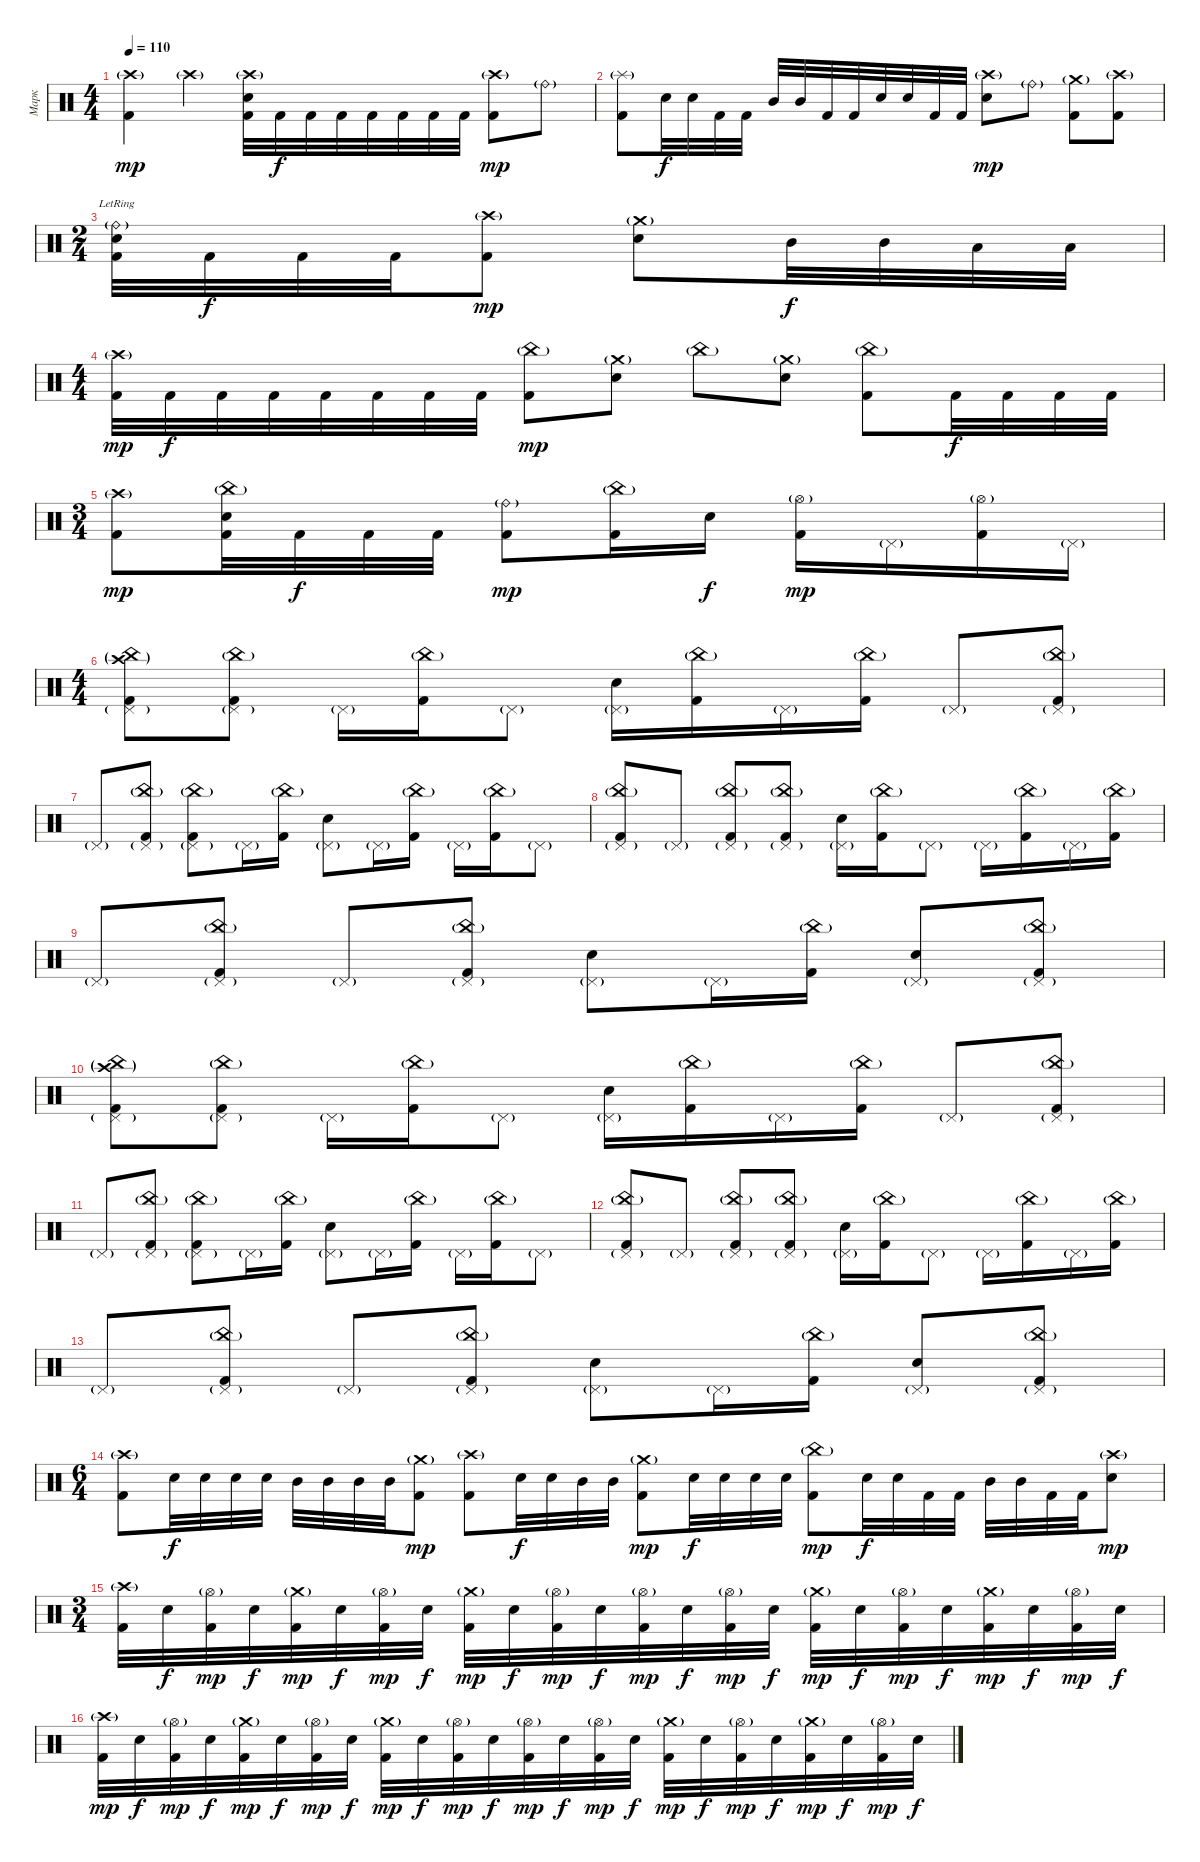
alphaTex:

\track ("Марк " "Марк ") {instrument percussion}
\staff {score}
\articulation defaults
\ts (4 4)
\tempo 110
\clef neutral
\ks c
("Crash high (hit)"{g} "Kick (hit) 2").4{dy mp} "Crash high (hit)"{g}.4 ("Crash high (hit)"{g} "Electric Snare (hit)" "Kick (hit) 2").32 "Kick (hit) 2".32{dy f} "Kick (hit) 2".32 "Kick (hit) 2".32 "Kick (hit) 2".32 "Kick (hit) 2".32 "Kick (hit) 2".32 "Kick (hit) 2".32 ("Crash high (hit)"{g} "Kick (hit) 2").8{dy mp} "Ride (bell)"{g}.8 |
("Splash (hit)"{g} "Kick (hit) 2").8 "Electric Snare (hit)".32{dy f} "Electric Snare (hit)".32 "Kick (hit) 2".32 "Kick (hit) 2".32 "Mid Tom (hit)".32 "Mid Tom (hit)".32 "Kick (hit) 2".32 "Kick (hit) 2".32 "Electric Snare (hit)".32 "Electric Snare (hit)".32 "Kick (hit) 2".32 "Kick (hit) 2".32 ("Crash high (hit)"{g} "Electric Snare (hit)").8{dy mp} "Ride (bell)"{g}.8 ("Crash medium (hit)"{g} "Kick (hit) 2").8 ("Crash high (hit)"{g} "Kick (hit) 2").8 |
\ts (2 4)
("Ride (bell)"{g lr} "Electric Snare (hit)" "Kick (hit) 2").32 "Kick (hit) 2".32{dy f} "Kick (hit) 2".32 "Kick (hit) 2".32 ("Crash high (hit)"{g} "Kick (hit) 2").8{dy mp} ("Crash medium (hit)"{g} "Electric Snare (hit)").8 "Mid Tom (hit)".32{dy f} "Mid Tom (hit)".32 "Low Tom (hit)".32 "Low Tom (hit)".32 |
\ts (4 4)
("Crash high (hit)"{g} "Kick (hit) 2").32{dy mp} "Kick (hit) 2".32{dy f} "Kick (hit) 2".32 "Kick (hit) 2".32 "Kick (hit) 2".32 "Kick (hit) 2".32 "Kick (hit) 2".32 "Kick (hit) 2".32 ("China (hit)"{g} "Kick (hit) 2").8{dy mp} ("Crash medium (hit)"{g} "Electric Snare (hit)").8 "China (hit)"{g}.8 ("Crash medium (hit)"{g} "Electric Snare (hit)").8 ("China (hit)"{g} "Kick (hit) 2").8 "Kick (hit) 2".32{dy f} "Kick (hit) 2".32 "Kick (hit) 2".32 "Kick (hit) 2".32 |
\ts (3 4)
("Crash high (hit)"{g} "Kick (hit) 2").8{dy mp} ("China (hit)"{g} "Electric Snare (hit)" "Kick (hit) 2").32 "Kick (hit) 2".32{dy f} "Kick (hit) 2".32 "Kick (hit) 2".32 ("Ride (bell)"{g} "Kick (hit) 2").8{dy mp} ("China (hit)"{g} "Kick (hit) 2").16 "Electric Snare (hit)".16{dy f} ("Hi-Hat (open)"{g} "Kick (hit) 2").16{dy mp} "Pedal Hi-Hat (hit)"{g}.16 ("Hi-Hat (open)"{g} "Kick (hit) 2").16 "Pedal Hi-Hat (hit)"{g}.16 |
\ts (4 4)
("China (hit)"{g} "Pedal Hi-Hat (hit)"{g} "Crash high (hit)"{g} "Kick (hit) 2").8 ("China (hit)"{g} "Pedal Hi-Hat (hit)"{g} "Kick (hit) 2").8 "Pedal Hi-Hat (hit)"{g}.16 ("China (hit)"{g} "Kick (hit) 2").16 "Pedal Hi-Hat (hit)"{g}.8 ("Pedal Hi-Hat (hit)"{g} "Electric Snare (hit)").16 ("China (hit)"{g} "Kick (hit) 2").16 "Pedal Hi-Hat (hit)"{g}.16 ("China (hit)"{g} "Kick (hit) 2").16 "Pedal Hi-Hat (hit)"{g}.8 ("China (hit)"{g} "Pedal Hi-Hat (hit)"{g} "Kick (hit) 2").8 |
"Pedal Hi-Hat (hit)"{g}.8 ("China (hit)"{g} "Pedal Hi-Hat (hit)"{g} "Kick (hit) 2").8 ("China (hit)"{g} "Pedal Hi-Hat (hit)"{g} "Kick (hit) 2").8 "Pedal Hi-Hat (hit)"{g}.16 ("China (hit)"{g} "Kick (hit) 2").16 ("Pedal Hi-Hat (hit)"{g} "Electric Snare (hit)").8 "Pedal Hi-Hat (hit)"{g}.16 ("China (hit)"{g} "Kick (hit) 2").16 "Pedal Hi-Hat (hit)"{g}.16 ("China (hit)"{g} "Kick (hit) 2").16 "Pedal Hi-Hat (hit)"{g}.8 |
("China (hit)"{g} "Pedal Hi-Hat (hit)"{g} "Kick (hit) 2").8 "Pedal Hi-Hat (hit)"{g}.8 ("China (hit)"{g} "Pedal Hi-Hat (hit)"{g} "Kick (hit) 2").8 ("China (hit)"{g} "Pedal Hi-Hat (hit)"{g} "Kick (hit) 2").8 ("Pedal Hi-Hat (hit)"{g} "Electric Snare (hit)").16 ("China (hit)"{g} "Kick (hit) 2").16 "Pedal Hi-Hat (hit)"{g}.8 "Pedal Hi-Hat (hit)"{g}.16 ("China (hit)"{g} "Kick (hit) 2").16 "Pedal Hi-Hat (hit)"{g}.16 ("China (hit)"{g} "Kick (hit) 2").16 |
"Pedal Hi-Hat (hit)"{g}.8 ("China (hit)"{g} "Pedal Hi-Hat (hit)"{g} "Kick (hit) 2").8 "Pedal Hi-Hat (hit)"{g}.8 ("China (hit)"{g} "Pedal Hi-Hat (hit)"{g} "Kick (hit) 2").8 ("Pedal Hi-Hat (hit)"{g} "Electric Snare (hit)").8 "Pedal Hi-Hat (hit)"{g}.16 ("China (hit)"{g} "Kick (hit) 2").16 ("Pedal Hi-Hat (hit)"{g} "Electric Snare (hit)").8 ("China (hit)"{g} "Pedal Hi-Hat (hit)"{g} "Kick (hit) 2").8 |
("China (hit)"{g} "Pedal Hi-Hat (hit)"{g} "Crash high (hit)"{g} "Kick (hit) 2").8 ("China (hit)"{g} "Pedal Hi-Hat (hit)"{g} "Kick (hit) 2").8 "Pedal Hi-Hat (hit)"{g}.16 ("China (hit)"{g} "Kick (hit) 2").16 "Pedal Hi-Hat (hit)"{g}.8 ("Pedal Hi-Hat (hit)"{g} "Electric Snare (hit)").16 ("China (hit)"{g} "Kick (hit) 2").16 "Pedal Hi-Hat (hit)"{g}.16 ("China (hit)"{g} "Kick (hit) 2").16 "Pedal Hi-Hat (hit)"{g}.8 ("China (hit)"{g} "Pedal Hi-Hat (hit)"{g} "Kick (hit) 2").8 |
"Pedal Hi-Hat (hit)"{g}.8 ("China (hit)"{g} "Pedal Hi-Hat (hit)"{g} "Kick (hit) 2").8 ("China (hit)"{g} "Pedal Hi-Hat (hit)"{g} "Kick (hit) 2").8 "Pedal Hi-Hat (hit)"{g}.16 ("China (hit)"{g} "Kick (hit) 2").16 ("Pedal Hi-Hat (hit)"{g} "Electric Snare (hit)").8 "Pedal Hi-Hat (hit)"{g}.16 ("China (hit)"{g} "Kick (hit) 2").16 "Pedal Hi-Hat (hit)"{g}.16 ("China (hit)"{g} "Kick (hit) 2").16 "Pedal Hi-Hat (hit)"{g}.8 |
("China (hit)"{g} "Pedal Hi-Hat (hit)"{g} "Kick (hit) 2").8 "Pedal Hi-Hat (hit)"{g}.8 ("China (hit)"{g} "Pedal Hi-Hat (hit)"{g} "Kick (hit) 2").8 ("China (hit)"{g} "Pedal Hi-Hat (hit)"{g} "Kick (hit) 2").8 ("Pedal Hi-Hat (hit)"{g} "Electric Snare (hit)").16 ("China (hit)"{g} "Kick (hit) 2").16 "Pedal Hi-Hat (hit)"{g}.8 "Pedal Hi-Hat (hit)"{g}.16 ("China (hit)"{g} "Kick (hit) 2").16 "Pedal Hi-Hat (hit)"{g}.16 ("China (hit)"{g} "Kick (hit) 2").16 |
"Pedal Hi-Hat (hit)"{g}.8 ("China (hit)"{g} "Pedal Hi-Hat (hit)"{g} "Kick (hit) 2").8 "Pedal Hi-Hat (hit)"{g}.8 ("China (hit)"{g} "Pedal Hi-Hat (hit)"{g} "Kick (hit) 2").8 ("Pedal Hi-Hat (hit)"{g} "Electric Snare (hit)").8 "Pedal Hi-Hat (hit)"{g}.16 ("China (hit)"{g} "Kick (hit) 2").16 ("Pedal Hi-Hat (hit)"{g} "Electric Snare (hit)").8 ("China (hit)"{g} "Pedal Hi-Hat (hit)"{g} "Kick (hit) 2").8 |
\ts (6 4)
("Crash high (hit)"{g} "Kick (hit) 2").8 "Electric Snare (hit)".32{dy f} "Electric Snare (hit)".32 "Electric Snare (hit)".32 "Electric Snare (hit)".32 "Mid Tom (hit)".32 "Mid Tom (hit)".32 "Mid Tom (hit)".32 "Mid Tom (hit)".32 ("Crash medium (hit)"{g} "Kick (hit) 2").8{dy mp} ("Crash high (hit)"{g} "Kick (hit) 2").8 "Electric Snare (hit)".32{dy f} "Electric Snare (hit)".32 "Mid Tom (hit)".32 "Mid Tom (hit)".32 ("Crash medium (hit)"{g} "Kick (hit) 2").8{dy mp} "Electric Snare (hit)".32{dy f} "Electric Snare (hit)".32 "Electric Snare (hit)".32 "Electric Snare (hit)".32 ("China (hit)"{g} "Kick (hit) 2").8{dy mp} "Electric Snare (hit)".32{dy f} "Electric Snare (hit)".32 "Kick (hit) 2".32 "Kick (hit) 2".32 "Mid Tom (hit)".32 "Mid Tom (hit)".32 "Kick (hit) 2".32 "Kick (hit) 2".32 ("Crash high (hit)"{g} "Electric Snare (hit)").8{dy mp} |
\ts (3 4)
("Crash high (hit)"{g} "Kick (hit) 2").32 "Electric Snare (hit)".32{dy f} ("Hi-Hat (open)"{g} "Kick (hit) 2").32{dy mp} "Electric Snare (hit)".32{dy f} ("Crash medium (hit)"{g} "Kick (hit) 2").32{dy mp} "Electric Snare (hit)".32{dy f} ("Hi-Hat (open)"{g} "Kick (hit) 2").32{dy mp} "Electric Snare (hit)".32{dy f} ("Crash medium (hit)"{g} "Kick (hit) 2").32{dy mp} "Electric Snare (hit)".32{dy f} ("Hi-Hat (open)"{g} "Kick (hit) 2").32{dy mp} "Electric Snare (hit)".32{dy f} ("Hi-Hat (open)"{g} "Kick (hit) 2").32{dy mp} "Electric Snare (hit)".32{dy f} ("Hi-Hat (open)"{g} "Kick (hit) 2").32{dy mp} "Electric Snare (hit)".32{dy f} ("Crash medium (hit)"{g} "Kick (hit) 2").32{dy mp} "Electric Snare (hit)".32{dy f} ("Hi-Hat (open)"{g} "Kick (hit) 2").32{dy mp} "Electric Snare (hit)".32{dy f} ("Crash medium (hit)"{g} "Kick (hit) 2").32{dy mp} "Electric Snare (hit)".32{dy f} ("Hi-Hat (open)"{g} "Kick (hit) 2").32{dy mp} "Electric Snare (hit)".32{dy f} |
("Crash high (hit)"{g} "Kick (hit) 2").32{dy mp} "Electric Snare (hit)".32{dy f} ("Hi-Hat (open)"{g} "Kick (hit) 2").32{dy mp} "Electric Snare (hit)".32{dy f} ("Crash medium (hit)"{g} "Kick (hit) 2").32{dy mp} "Electric Snare (hit)".32{dy f} ("Hi-Hat (open)"{g} "Kick (hit) 2").32{dy mp} "Electric Snare (hit)".32{dy f} ("Crash medium (hit)"{g} "Kick (hit) 2").32{dy mp} "Electric Snare (hit)".32{dy f} ("Hi-Hat (open)"{g} "Kick (hit) 2").32{dy mp} "Electric Snare (hit)".32{dy f} ("Hi-Hat (open)"{g} "Kick (hit) 2").32{dy mp} "Electric Snare (hit)".32{dy f} ("Hi-Hat (open)"{g} "Kick (hit) 2").32{dy mp} "Electric Snare (hit)".32{dy f} ("Crash medium (hit)"{g} "Kick (hit) 2").32{dy mp} "Electric Snare (hit)".32{dy f} ("Hi-Hat (open)"{g} "Kick (hit) 2").32{dy mp} "Electric Snare (hit)".32{dy f} ("Crash medium (hit)"{g} "Kick (hit) 2").32{dy mp} "Electric Snare (hit)".32{dy f} ("Hi-Hat (open)"{g} "Kick (hit) 2").32{dy mp} "Electric Snare (hit)".32{dy f}
